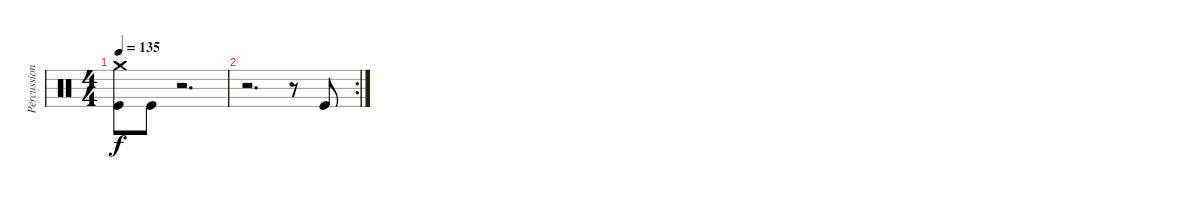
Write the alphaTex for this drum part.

\track ("Percussion" "Percussion") {instrument percussion}
\staff {score}
\articulation defaults
\ts (4 4)
\tempo 135
\clef neutral
\ks c
("Kick (hit)" "Crash medium (hit)").8{dy f} "Kick (hit)".8 r.2{d} |
\rc 2
r.2{d} r.8 "Kick (hit)".8
